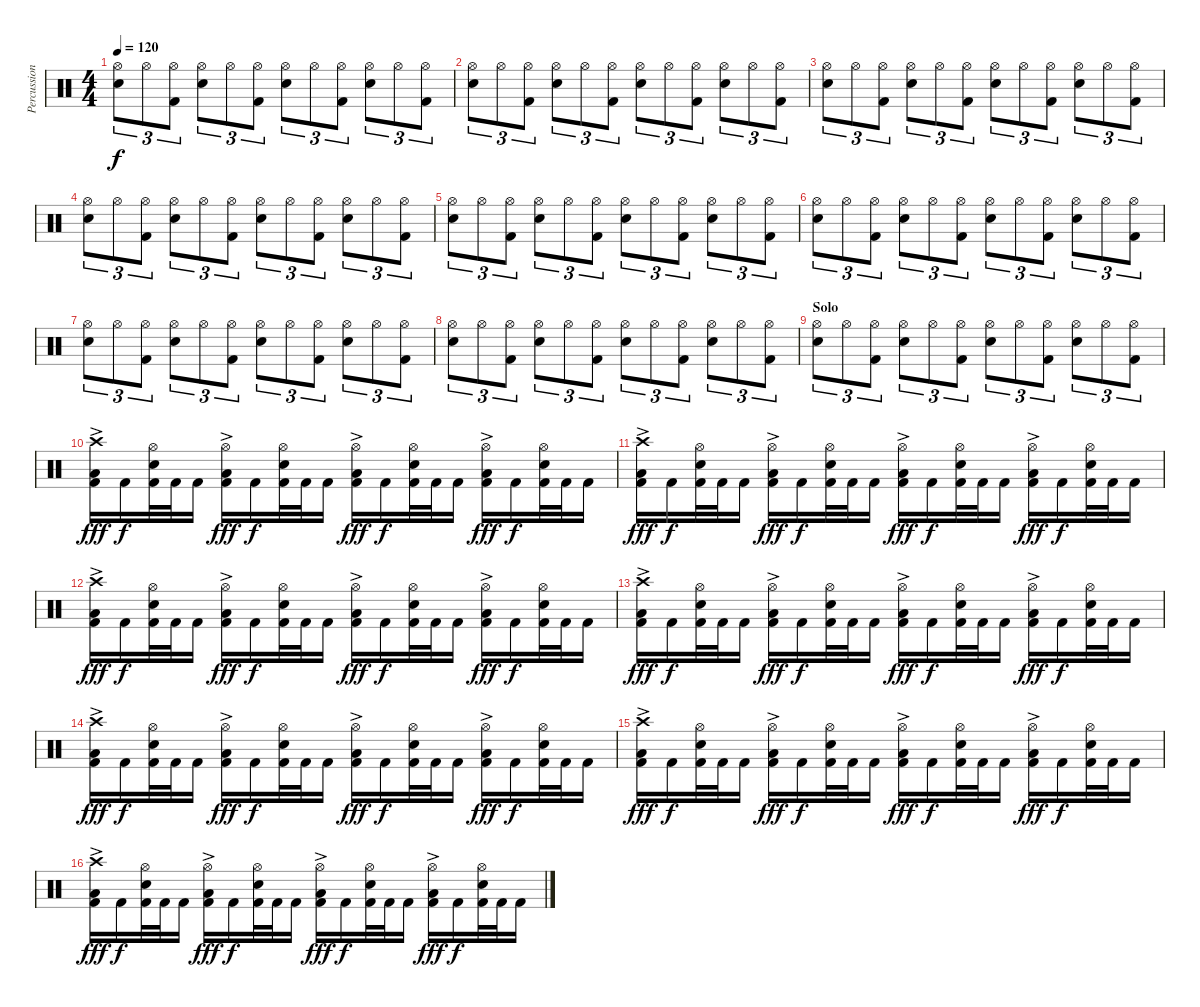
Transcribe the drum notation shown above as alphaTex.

\track ("Percussion" "Percussion") {instrument percussion}
\staff {score}
\articulation defaults
\ts (4 4)
\tempo 120
\clef neutral
\ks c
("Hi-Hat (open)" "Electric Snare (hit)").8{tu (3 2) dy f} "Hi-Hat (open)".8{tu (3 2)} ("Hi-Hat (open)" "Kick (hit) 2").8{tu (3 2)} ("Hi-Hat (open)" "Electric Snare (hit)").8{tu (3 2)} "Hi-Hat (open)".8{tu (3 2)} ("Hi-Hat (open)" "Kick (hit) 2").8{tu (3 2)} ("Hi-Hat (open)" "Electric Snare (hit)").8{tu (3 2)} "Hi-Hat (open)".8{tu (3 2)} ("Hi-Hat (open)" "Kick (hit) 2").8{tu (3 2)} ("Hi-Hat (open)" "Electric Snare (hit)").8{tu (3 2)} "Hi-Hat (open)".8{tu (3 2)} ("Hi-Hat (open)" "Kick (hit) 2").8{tu (3 2)} |
("Hi-Hat (open)" "Electric Snare (hit)").8{tu (3 2)} "Hi-Hat (open)".8{tu (3 2)} ("Hi-Hat (open)" "Kick (hit) 2").8{tu (3 2)} ("Hi-Hat (open)" "Electric Snare (hit)").8{tu (3 2)} "Hi-Hat (open)".8{tu (3 2)} ("Hi-Hat (open)" "Kick (hit) 2").8{tu (3 2)} ("Hi-Hat (open)" "Electric Snare (hit)").8{tu (3 2)} "Hi-Hat (open)".8{tu (3 2)} ("Hi-Hat (open)" "Kick (hit) 2").8{tu (3 2)} ("Hi-Hat (open)" "Electric Snare (hit)").8{tu (3 2)} "Hi-Hat (open)".8{tu (3 2)} ("Hi-Hat (open)" "Kick (hit) 2").8{tu (3 2)} |
("Hi-Hat (open)" "Electric Snare (hit)").8{tu (3 2)} "Hi-Hat (open)".8{tu (3 2)} ("Hi-Hat (open)" "Kick (hit) 2").8{tu (3 2)} ("Hi-Hat (open)" "Electric Snare (hit)").8{tu (3 2)} "Hi-Hat (open)".8{tu (3 2)} ("Hi-Hat (open)" "Kick (hit) 2").8{tu (3 2)} ("Hi-Hat (open)" "Electric Snare (hit)").8{tu (3 2)} "Hi-Hat (open)".8{tu (3 2)} ("Hi-Hat (open)" "Kick (hit) 2").8{tu (3 2)} ("Hi-Hat (open)" "Electric Snare (hit)").8{tu (3 2)} "Hi-Hat (open)".8{tu (3 2)} ("Hi-Hat (open)" "Kick (hit) 2").8{tu (3 2)} |
("Hi-Hat (open)" "Electric Snare (hit)").8{tu (3 2)} "Hi-Hat (open)".8{tu (3 2)} ("Hi-Hat (open)" "Kick (hit) 2").8{tu (3 2)} ("Hi-Hat (open)" "Electric Snare (hit)").8{tu (3 2)} "Hi-Hat (open)".8{tu (3 2)} ("Hi-Hat (open)" "Kick (hit) 2").8{tu (3 2)} ("Hi-Hat (open)" "Electric Snare (hit)").8{tu (3 2)} "Hi-Hat (open)".8{tu (3 2)} ("Hi-Hat (open)" "Kick (hit) 2").8{tu (3 2)} ("Hi-Hat (open)" "Electric Snare (hit)").8{tu (3 2)} "Hi-Hat (open)".8{tu (3 2)} ("Hi-Hat (open)" "Kick (hit) 2").8{tu (3 2)} |
("Hi-Hat (open)" "Electric Snare (hit)").8{tu (3 2)} "Hi-Hat (open)".8{tu (3 2)} ("Hi-Hat (open)" "Kick (hit) 2").8{tu (3 2)} ("Hi-Hat (open)" "Electric Snare (hit)").8{tu (3 2)} "Hi-Hat (open)".8{tu (3 2)} ("Hi-Hat (open)" "Kick (hit) 2").8{tu (3 2)} ("Hi-Hat (open)" "Electric Snare (hit)").8{tu (3 2)} "Hi-Hat (open)".8{tu (3 2)} ("Hi-Hat (open)" "Kick (hit) 2").8{tu (3 2)} ("Hi-Hat (open)" "Electric Snare (hit)").8{tu (3 2)} "Hi-Hat (open)".8{tu (3 2)} ("Hi-Hat (open)" "Kick (hit) 2").8{tu (3 2)} |
("Hi-Hat (open)" "Electric Snare (hit)").8{tu (3 2)} "Hi-Hat (open)".8{tu (3 2)} ("Hi-Hat (open)" "Kick (hit) 2").8{tu (3 2)} ("Hi-Hat (open)" "Electric Snare (hit)").8{tu (3 2)} "Hi-Hat (open)".8{tu (3 2)} ("Hi-Hat (open)" "Kick (hit) 2").8{tu (3 2)} ("Hi-Hat (open)" "Electric Snare (hit)").8{tu (3 2)} "Hi-Hat (open)".8{tu (3 2)} ("Hi-Hat (open)" "Kick (hit) 2").8{tu (3 2)} ("Hi-Hat (open)" "Electric Snare (hit)").8{tu (3 2)} "Hi-Hat (open)".8{tu (3 2)} ("Hi-Hat (open)" "Kick (hit) 2").8{tu (3 2)} |
("Hi-Hat (open)" "Electric Snare (hit)").8{tu (3 2)} "Hi-Hat (open)".8{tu (3 2)} ("Hi-Hat (open)" "Kick (hit) 2").8{tu (3 2)} ("Hi-Hat (open)" "Electric Snare (hit)").8{tu (3 2)} "Hi-Hat (open)".8{tu (3 2)} ("Hi-Hat (open)" "Kick (hit) 2").8{tu (3 2)} ("Hi-Hat (open)" "Electric Snare (hit)").8{tu (3 2)} "Hi-Hat (open)".8{tu (3 2)} ("Hi-Hat (open)" "Kick (hit) 2").8{tu (3 2)} ("Hi-Hat (open)" "Electric Snare (hit)").8{tu (3 2)} "Hi-Hat (open)".8{tu (3 2)} ("Hi-Hat (open)" "Kick (hit) 2").8{tu (3 2)} |
("Hi-Hat (open)" "Electric Snare (hit)").8{tu (3 2)} "Hi-Hat (open)".8{tu (3 2)} ("Hi-Hat (open)" "Kick (hit) 2").8{tu (3 2)} ("Hi-Hat (open)" "Electric Snare (hit)").8{tu (3 2)} "Hi-Hat (open)".8{tu (3 2)} ("Hi-Hat (open)" "Kick (hit) 2").8{tu (3 2)} ("Hi-Hat (open)" "Electric Snare (hit)").8{tu (3 2)} "Hi-Hat (open)".8{tu (3 2)} ("Hi-Hat (open)" "Kick (hit) 2").8{tu (3 2)} ("Hi-Hat (open)" "Electric Snare (hit)").8{tu (3 2)} "Hi-Hat (open)".8{tu (3 2)} ("Hi-Hat (open)" "Kick (hit) 2").8{tu (3 2)} |
\section ("" "Solo")
("Hi-Hat (open)" "Electric Snare (hit)").8{tu (3 2)} "Hi-Hat (open)".8{tu (3 2)} ("Hi-Hat (open)" "Kick (hit) 2").8{tu (3 2)} ("Hi-Hat (open)" "Electric Snare (hit)").8{tu (3 2)} "Hi-Hat (open)".8{tu (3 2)} ("Hi-Hat (open)" "Kick (hit) 2").8{tu (3 2)} ("Hi-Hat (open)" "Electric Snare (hit)").8{tu (3 2)} "Hi-Hat (open)".8{tu (3 2)} ("Hi-Hat (open)" "Kick (hit) 2").8{tu (3 2)} ("Hi-Hat (open)" "Electric Snare (hit)").8{tu (3 2)} "Hi-Hat (open)".8{tu (3 2)} ("Hi-Hat (open)" "Kick (hit) 2").8{tu (3 2)} |
("Crash high (hit)" "Low Floor Tom (hit)"{ac} "Kick (hit) 2").16{dy fff} "Kick (hit) 2".16{dy f} ("Hi-Hat (open)" "Electric Snare (hit)" "Kick (hit) 2").32 "Kick (hit) 2".32 "Kick (hit) 2".16 ("Hi-Hat (open)" "Low Floor Tom (hit)"{ac} "Kick (hit) 2").16{dy fff} "Kick (hit) 2".16{dy f} ("Hi-Hat (open)" "Electric Snare (hit)" "Kick (hit) 2").32 "Kick (hit) 2".32 "Kick (hit) 2".16 ("Hi-Hat (open)" "Low Floor Tom (hit)"{ac} "Kick (hit) 2").16{dy fff} "Kick (hit) 2".16{dy f} ("Hi-Hat (open)" "Electric Snare (hit)" "Kick (hit) 2").32 "Kick (hit) 2".32 "Kick (hit) 2".16 ("Hi-Hat (open)" "Low Floor Tom (hit)"{ac} "Kick (hit) 2").16{dy fff} "Kick (hit) 2".16{dy f} ("Hi-Hat (open)" "Electric Snare (hit)" "Kick (hit) 2").32 "Kick (hit) 2".32 "Kick (hit) 2".16 |
("Crash high (hit)" "Low Floor Tom (hit)"{ac} "Kick (hit) 2").16{dy fff} "Kick (hit) 2".16{dy f} ("Hi-Hat (open)" "Electric Snare (hit)" "Kick (hit) 2").32 "Kick (hit) 2".32 "Kick (hit) 2".16 ("Hi-Hat (open)" "Low Floor Tom (hit)"{ac} "Kick (hit) 2").16{dy fff} "Kick (hit) 2".16{dy f} ("Hi-Hat (open)" "Electric Snare (hit)" "Kick (hit) 2").32 "Kick (hit) 2".32 "Kick (hit) 2".16 ("Hi-Hat (open)" "Low Floor Tom (hit)"{ac} "Kick (hit) 2").16{dy fff} "Kick (hit) 2".16{dy f} ("Hi-Hat (open)" "Electric Snare (hit)" "Kick (hit) 2").32 "Kick (hit) 2".32 "Kick (hit) 2".16 ("Hi-Hat (open)" "Low Floor Tom (hit)"{ac} "Kick (hit) 2").16{dy fff} "Kick (hit) 2".16{dy f} ("Hi-Hat (open)" "Electric Snare (hit)" "Kick (hit) 2").32 "Kick (hit) 2".32 "Kick (hit) 2".16 |
("Crash high (hit)" "Low Floor Tom (hit)"{ac} "Kick (hit) 2").16{dy fff} "Kick (hit) 2".16{dy f} ("Hi-Hat (open)" "Electric Snare (hit)" "Kick (hit) 2").32 "Kick (hit) 2".32 "Kick (hit) 2".16 ("Hi-Hat (open)" "Low Floor Tom (hit)"{ac} "Kick (hit) 2").16{dy fff} "Kick (hit) 2".16{dy f} ("Hi-Hat (open)" "Electric Snare (hit)" "Kick (hit) 2").32 "Kick (hit) 2".32 "Kick (hit) 2".16 ("Hi-Hat (open)" "Low Floor Tom (hit)"{ac} "Kick (hit) 2").16{dy fff} "Kick (hit) 2".16{dy f} ("Hi-Hat (open)" "Electric Snare (hit)" "Kick (hit) 2").32 "Kick (hit) 2".32 "Kick (hit) 2".16 ("Hi-Hat (open)" "Low Floor Tom (hit)"{ac} "Kick (hit) 2").16{dy fff} "Kick (hit) 2".16{dy f} ("Hi-Hat (open)" "Electric Snare (hit)" "Kick (hit) 2").32 "Kick (hit) 2".32 "Kick (hit) 2".16 |
("Crash high (hit)" "Low Floor Tom (hit)"{ac} "Kick (hit) 2").16{dy fff} "Kick (hit) 2".16{dy f} ("Hi-Hat (open)" "Electric Snare (hit)" "Kick (hit) 2").32 "Kick (hit) 2".32 "Kick (hit) 2".16 ("Hi-Hat (open)" "Low Floor Tom (hit)"{ac} "Kick (hit) 2").16{dy fff} "Kick (hit) 2".16{dy f} ("Hi-Hat (open)" "Electric Snare (hit)" "Kick (hit) 2").32 "Kick (hit) 2".32 "Kick (hit) 2".16 ("Hi-Hat (open)" "Low Floor Tom (hit)"{ac} "Kick (hit) 2").16{dy fff} "Kick (hit) 2".16{dy f} ("Hi-Hat (open)" "Electric Snare (hit)" "Kick (hit) 2").32 "Kick (hit) 2".32 "Kick (hit) 2".16 ("Hi-Hat (open)" "Low Floor Tom (hit)"{ac} "Kick (hit) 2").16{dy fff} "Kick (hit) 2".16{dy f} ("Hi-Hat (open)" "Electric Snare (hit)" "Kick (hit) 2").32 "Kick (hit) 2".32 "Kick (hit) 2".16 |
("Crash high (hit)" "Low Floor Tom (hit)"{ac} "Kick (hit) 2").16{dy fff} "Kick (hit) 2".16{dy f} ("Hi-Hat (open)" "Electric Snare (hit)" "Kick (hit) 2").32 "Kick (hit) 2".32 "Kick (hit) 2".16 ("Hi-Hat (open)" "Low Floor Tom (hit)"{ac} "Kick (hit) 2").16{dy fff} "Kick (hit) 2".16{dy f} ("Hi-Hat (open)" "Electric Snare (hit)" "Kick (hit) 2").32 "Kick (hit) 2".32 "Kick (hit) 2".16 ("Hi-Hat (open)" "Low Floor Tom (hit)"{ac} "Kick (hit) 2").16{dy fff} "Kick (hit) 2".16{dy f} ("Hi-Hat (open)" "Electric Snare (hit)" "Kick (hit) 2").32 "Kick (hit) 2".32 "Kick (hit) 2".16 ("Hi-Hat (open)" "Low Floor Tom (hit)"{ac} "Kick (hit) 2").16{dy fff} "Kick (hit) 2".16{dy f} ("Hi-Hat (open)" "Electric Snare (hit)" "Kick (hit) 2").32 "Kick (hit) 2".32 "Kick (hit) 2".16 |
("Crash high (hit)" "Low Floor Tom (hit)"{ac} "Kick (hit) 2").16{dy fff} "Kick (hit) 2".16{dy f} ("Hi-Hat (open)" "Electric Snare (hit)" "Kick (hit) 2").32 "Kick (hit) 2".32 "Kick (hit) 2".16 ("Hi-Hat (open)" "Low Floor Tom (hit)"{ac} "Kick (hit) 2").16{dy fff} "Kick (hit) 2".16{dy f} ("Hi-Hat (open)" "Electric Snare (hit)" "Kick (hit) 2").32 "Kick (hit) 2".32 "Kick (hit) 2".16 ("Hi-Hat (open)" "Low Floor Tom (hit)"{ac} "Kick (hit) 2").16{dy fff} "Kick (hit) 2".16{dy f} ("Hi-Hat (open)" "Electric Snare (hit)" "Kick (hit) 2").32 "Kick (hit) 2".32 "Kick (hit) 2".16 ("Hi-Hat (open)" "Low Floor Tom (hit)"{ac} "Kick (hit) 2").16{dy fff} "Kick (hit) 2".16{dy f} ("Hi-Hat (open)" "Electric Snare (hit)" "Kick (hit) 2").32 "Kick (hit) 2".32 "Kick (hit) 2".16 |
("Crash high (hit)" "Low Floor Tom (hit)"{ac} "Kick (hit) 2").16{dy fff} "Kick (hit) 2".16{dy f} ("Hi-Hat (open)" "Electric Snare (hit)" "Kick (hit) 2").32 "Kick (hit) 2".32 "Kick (hit) 2".16 ("Hi-Hat (open)" "Low Floor Tom (hit)"{ac} "Kick (hit) 2").16{dy fff} "Kick (hit) 2".16{dy f} ("Hi-Hat (open)" "Electric Snare (hit)" "Kick (hit) 2").32 "Kick (hit) 2".32 "Kick (hit) 2".16 ("Hi-Hat (open)" "Low Floor Tom (hit)"{ac} "Kick (hit) 2").16{dy fff} "Kick (hit) 2".16{dy f} ("Hi-Hat (open)" "Electric Snare (hit)" "Kick (hit) 2").32 "Kick (hit) 2".32 "Kick (hit) 2".16 ("Hi-Hat (open)" "Low Floor Tom (hit)"{ac} "Kick (hit) 2").16{dy fff} "Kick (hit) 2".16{dy f} ("Hi-Hat (open)" "Electric Snare (hit)" "Kick (hit) 2").32 "Kick (hit) 2".32 "Kick (hit) 2".16
